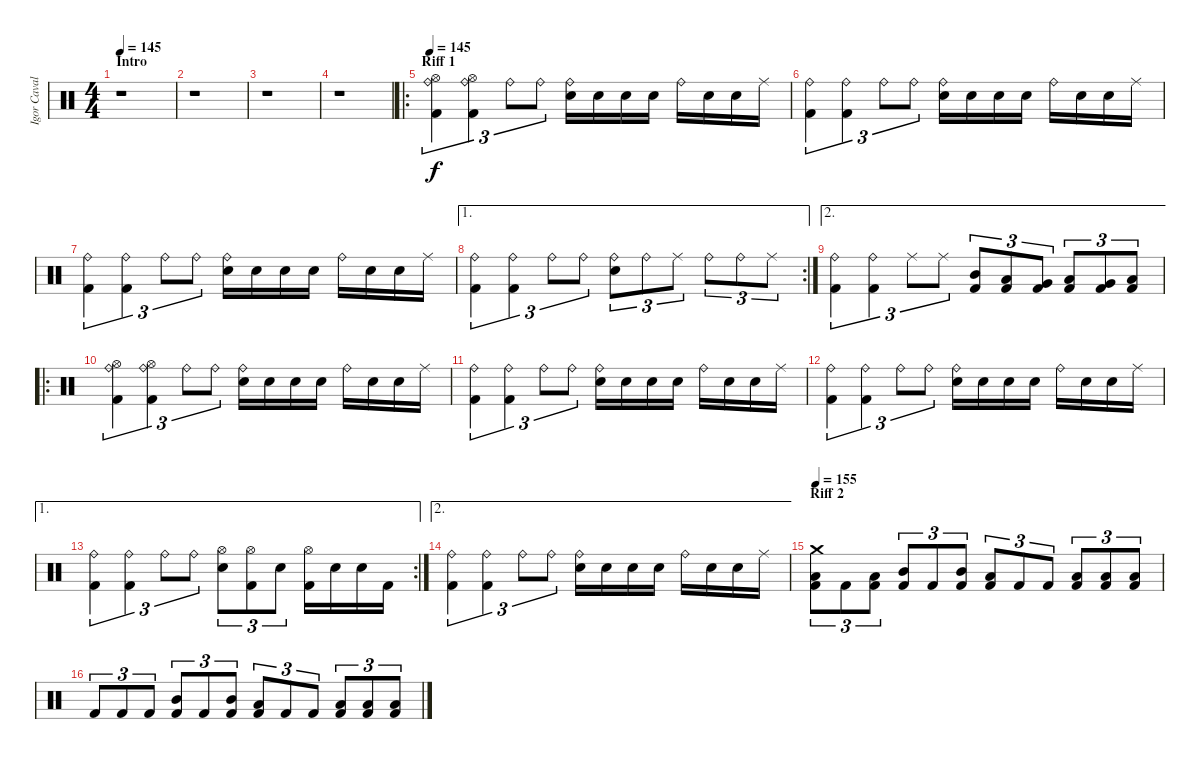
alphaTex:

\track ("Igor Cavalera - Drums" "Igor Caval") {instrument percussion}
\staff {score}
\articulation defaults
\ts (4 4)
\section ("" "Intro")
\tempo 145
\tempo 137
\tempo 145
\clef neutral
\ks c
r.1{dy f volume 16 balance 8} |
r.1 |
r.1 |
r.1 |
\ro
\section ("" "Riff 1")
\tempo 145
("Ride (bell)" "Hi-Hat (open)" "Kick (hit) 2").4{tu (3 2) volume 16 balance 8} ("Ride (bell)" "Hi-Hat (open)" "Kick (hit) 2").4{tu (3 2)} "Ride (bell)".8{tu (3 2)} "Ride (bell)".8{tu (3 2)} ("Ride (bell)" "Electric Snare (hit)").16 "Snare (hit)".16 "Snare (hit)".16 "Snare (hit)".16 "Ride (bell)".16 "Snare (hit)".16 "Snare (hit)".16 "Ride (middle)".16 |
("Ride (bell)" "Kick (hit) 2").4{tu (3 2)} ("Ride (bell)" "Kick (hit) 2").4{tu (3 2)} "Ride (bell)".8{tu (3 2)} "Ride (bell)".8{tu (3 2)} ("Ride (bell)" "Electric Snare (hit)").16 "Snare (hit)".16 "Snare (hit)".16 "Snare (hit)".16 "Ride (bell)".16 "Snare (hit)".16 "Snare (hit)".16 "Ride (middle)".16 |
("Ride (bell)" "Kick (hit) 2").4{tu (3 2)} ("Ride (bell)" "Kick (hit) 2").4{tu (3 2)} "Ride (bell)".8{tu (3 2)} "Ride (bell)".8{tu (3 2)} ("Ride (bell)" "Electric Snare (hit)").16 "Snare (hit)".16 "Snare (hit)".16 "Snare (hit)".16 "Ride (bell)".16 "Snare (hit)".16 "Snare (hit)".16 "Ride (middle)".16 |
\ae 1
\rc 2
("Ride (bell)" "Kick (hit) 2").4{tu (3 2)} ("Ride (bell)" "Kick (hit) 2").4{tu (3 2)} "Ride (bell)".8{tu (3 2)} "Ride (bell)".8{tu (3 2)} ("Ride (bell)" "Electric Snare (hit)").8{tu (3 2)} "Ride (bell)".8{tu (3 2)} "Ride (middle)".8{tu (3 2)} "Ride (bell)".8{tu (3 2)} "Ride (bell)".8{tu (3 2)} "Ride (middle)".8{tu (3 2)} |
\ae 2
("Ride (bell)" "Kick (hit) 2").4{tu (3 2)} ("Ride (bell)" "Kick (hit) 2").4{tu (3 2)} "Ride (middle)".8{tu (3 2)} "Ride (middle)".8{tu (3 2)} ("Mid Tom (hit)" "Kick (hit) 2").8{tu (3 2)} ("Low Tom (hit)" "Kick (hit) 2").8{tu (3 2)} ("Very Low Tom (hit)" "Kick (hit) 2").8{tu (3 2)} ("Low Tom (hit)" "Kick (hit) 2").8{tu (3 2)} ("Very Low Tom (hit)" "Kick (hit) 2").8{tu (3 2)} ("Low Floor Tom (hit)" "Kick (hit) 2").8{tu (3 2)} |
\ro
("Ride (bell)" "Hi-Hat (open)" "Kick (hit) 2").4{tu (3 2)} ("Ride (bell)" "Hi-Hat (open)" "Kick (hit) 2").4{tu (3 2)} "Ride (bell)".8{tu (3 2)} "Ride (bell)".8{tu (3 2)} ("Ride (bell)" "Electric Snare (hit)").16 "Snare (hit)".16 "Snare (hit)".16 "Snare (hit)".16 "Ride (bell)".16 "Snare (hit)".16 "Snare (hit)".16 "Ride (middle)".16 |
("Ride (bell)" "Kick (hit) 2").4{tu (3 2)} ("Ride (bell)" "Kick (hit) 2").4{tu (3 2)} "Ride (bell)".8{tu (3 2)} "Ride (bell)".8{tu (3 2)} ("Ride (bell)" "Electric Snare (hit)").16 "Snare (hit)".16 "Snare (hit)".16 "Snare (hit)".16 "Ride (bell)".16 "Snare (hit)".16 "Snare (hit)".16 "Ride (middle)".16 |
("Ride (bell)" "Kick (hit) 2").4{tu (3 2)} ("Ride (bell)" "Kick (hit) 2").4{tu (3 2)} "Ride (bell)".8{tu (3 2)} "Ride (bell)".8{tu (3 2)} ("Ride (bell)" "Electric Snare (hit)").16 "Snare (hit)".16 "Snare (hit)".16 "Snare (hit)".16 "Ride (bell)".16 "Snare (hit)".16 "Snare (hit)".16 "Ride (middle)".16 |
\ae 1
\rc 2
("Ride (bell)" "Kick (hit) 2").4{tu (3 2)} ("Ride (bell)" "Kick (hit) 2").4{tu (3 2)} "Ride (bell)".8{tu (3 2)} "Ride (bell)".8{tu (3 2)} ("Hi-Hat (open)" "Electric Snare (hit)").8{tu (3 2)} ("Hi-Hat (open)" "Kick (hit) 2").8{tu (3 2)} "Snare (hit)".8{tu (3 2)} ("Hi-Hat (open)" "Kick (hit) 2").16 "Snare (hit)".16 "Snare (hit)".16 "Kick (hit) 2".16 |
\ae 2
("Ride (bell)" "Kick (hit) 2").4{tu (3 2)} ("Ride (bell)" "Kick (hit) 2").4{tu (3 2)} "Ride (bell)".8{tu (3 2)} "Ride (bell)".8{tu (3 2)} ("Ride (bell)" "Electric Snare (hit)").16 "Snare (hit)".16 "Snare (hit)".16 "Snare (hit)".16 "Ride (bell)".16 "Snare (hit)".16 "Snare (hit)".16 "Ride (middle)".16 |
\section ("" "Riff 2")
\tempo 155
("Crash medium (hit)" "Low Tom (hit)" "Kick (hit) 2").8{tu (3 2) volume 16} "Kick (hit) 2".8{tu (3 2)} ("Low Tom (hit)" "Kick (hit) 2").8{tu (3 2)} ("Mid Tom (hit)" "Kick (hit) 2").8{tu (3 2)} "Kick (hit) 2".8{tu (3 2)} ("Mid Tom (hit)" "Kick (hit) 2").8{tu (3 2)} ("Low Tom (hit)" "Kick (hit) 2").8{tu (3 2)} "Kick (hit) 2".8{tu (3 2)} "Kick (hit) 2".8{tu (3 2)} ("Low Floor Tom (hit)" "Kick (hit) 2").8{tu (3 2)} ("Low Floor Tom (hit)" "Kick (hit) 2").8{tu (3 2)} ("Low Floor Tom (hit)" "Kick (hit) 2").8{tu (3 2)} |
"Kick (hit) 2".8{tu (3 2)} "Kick (hit) 2".8{tu (3 2)} "Kick (hit) 2".8{tu (3 2)} ("Mid Tom (hit)" "Kick (hit) 2").8{tu (3 2)} "Kick (hit) 2".8{tu (3 2)} ("Mid Tom (hit)" "Kick (hit) 2").8{tu (3 2)} ("Low Tom (hit)" "Kick (hit) 2").8{tu (3 2)} "Kick (hit) 2".8{tu (3 2)} "Kick (hit) 2".8{tu (3 2)} ("Low Floor Tom (hit)" "Kick (hit) 2").8{tu (3 2)} ("Low Floor Tom (hit)" "Kick (hit) 2").8{tu (3 2)} ("Low Floor Tom (hit)" "Kick (hit) 2").8{tu (3 2)}
